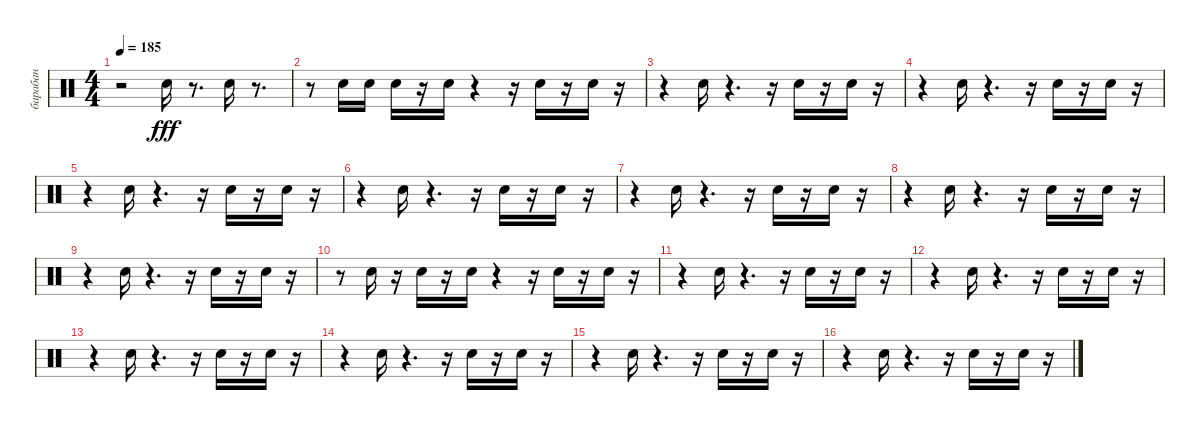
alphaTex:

\track ("барабан" "барабан") {instrument percussion}
\staff {score}
\articulation defaults
\ts (4 4)
\tempo 185
\clef neutral
\ks c
r.2{dy fff} "Snare (hit) 2".16 r.8{d} "Snare (hit) 2".16 r.8{d} |
r.8 "Snare (hit) 2".16 "Snare (hit) 2".16 "Snare (hit) 2".16 r.16 "Snare (hit) 2".16 r.4 r.16 "Snare (hit) 2".16 r.16 "Snare (hit) 2".16 r.16 |
r.4 "Snare (hit) 2".16 r.4{d} r.16 "Snare (hit) 2".16 r.16 "Snare (hit) 2".16 r.16 |
r.4 "Snare (hit) 2".16 r.4{d} r.16 "Snare (hit) 2".16 r.16 "Snare (hit) 2".16 r.16 |
r.4 "Snare (hit) 2".16 r.4{d} r.16 "Snare (hit) 2".16 r.16 "Snare (hit) 2".16 r.16 |
r.4 "Snare (hit) 2".16 r.4{d} r.16 "Snare (hit) 2".16 r.16 "Snare (hit) 2".16 r.16 |
r.4 "Snare (hit) 2".16 r.4{d} r.16 "Snare (hit) 2".16 r.16 "Snare (hit) 2".16 r.16 |
r.4 "Snare (hit) 2".16 r.4{d} r.16 "Snare (hit) 2".16 r.16 "Snare (hit) 2".16 r.16 |
r.4 "Snare (hit) 2".16 r.4{d} r.16 "Snare (hit) 2".16 r.16 "Snare (hit) 2".16 r.16 |
r.8 "Snare (hit) 2".16 r.16 "Snare (hit) 2".16 r.16 "Snare (hit) 2".16 r.4 r.16 "Snare (hit) 2".16 r.16 "Snare (hit) 2".16 r.16 |
r.4 "Snare (hit) 2".16 r.4{d} r.16 "Snare (hit) 2".16 r.16 "Snare (hit) 2".16 r.16 |
r.4 "Snare (hit) 2".16 r.4{d} r.16 "Snare (hit) 2".16 r.16 "Snare (hit) 2".16 r.16 |
r.4 "Snare (hit) 2".16 r.4{d} r.16 "Snare (hit) 2".16 r.16 "Snare (hit) 2".16 r.16 |
r.4 "Snare (hit) 2".16 r.4{d} r.16 "Snare (hit) 2".16 r.16 "Snare (hit) 2".16 r.16 |
r.4 "Snare (hit) 2".16 r.4{d} r.16 "Snare (hit) 2".16 r.16 "Snare (hit) 2".16 r.16 |
r.4 "Snare (hit) 2".16 r.4{d} r.16 "Snare (hit) 2".16 r.16 "Snare (hit) 2".16 r.16
